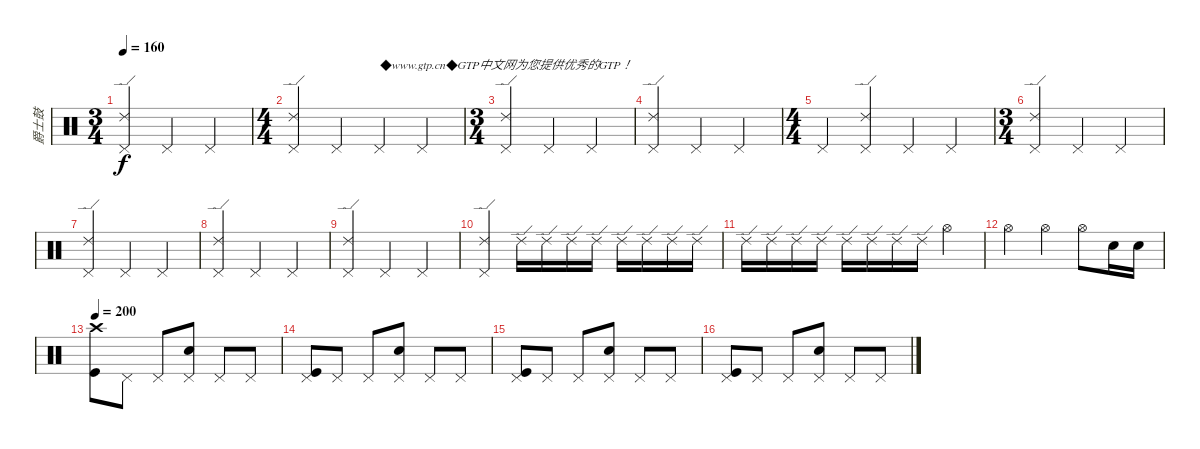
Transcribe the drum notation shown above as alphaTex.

\track ("爵士鼓" "爵士鼓") {instrument percussion}
\staff {score}
\articulation defaults
\ts (3 4)
\tempo 160
\clef neutral
\ks c
("Pedal Hi-Hat (hit)" "Ride (edge) 2").4{dy f} "Pedal Hi-Hat (hit)".4 "Pedal Hi-Hat (hit)".4 |
\ts (4 4)
("Pedal Hi-Hat (hit)" "Ride (edge) 2").4 "Pedal Hi-Hat (hit)".4 "Pedal Hi-Hat (hit)".4{txt "◆www.gtp.cn◆GTP中文网为您提供优秀的GTP！"} "Pedal Hi-Hat (hit)".4 |
\ts (3 4)
("Pedal Hi-Hat (hit)" "Ride (edge) 2").4 "Pedal Hi-Hat (hit)".4 "Pedal Hi-Hat (hit)".4 |
("Pedal Hi-Hat (hit)" "Ride (edge) 2").4 "Pedal Hi-Hat (hit)".4 "Pedal Hi-Hat (hit)".4 |
\ts (4 4)
"Pedal Hi-Hat (hit)".4 ("Pedal Hi-Hat (hit)" "Ride (edge) 2").4 "Pedal Hi-Hat (hit)".4 "Pedal Hi-Hat (hit)".4 |
\ts (3 4)
("Pedal Hi-Hat (hit)" "Ride (edge) 2").4 "Pedal Hi-Hat (hit)".4 "Pedal Hi-Hat (hit)".4 |
("Pedal Hi-Hat (hit)" "Ride (edge) 2").4 "Pedal Hi-Hat (hit)".4 "Pedal Hi-Hat (hit)".4 |
("Pedal Hi-Hat (hit)" "Ride (edge) 2").4 "Pedal Hi-Hat (hit)".4 "Pedal Hi-Hat (hit)".4 |
("Pedal Hi-Hat (hit)" "Ride (edge) 2").4 "Pedal Hi-Hat (hit)".4 "Pedal Hi-Hat (hit)".4 |
("Pedal Hi-Hat (hit)" "Ride (edge) 2").4 "Ride (edge) 2".16 "Ride (edge) 2".16 "Ride (edge) 2".16 "Ride (edge) 2".16 "Ride (edge) 2".16 "Ride (edge) 2".16 "Ride (edge) 2".16 "Ride (edge) 2".16 |
"Ride (edge) 2".16 "Ride (edge) 2".16 "Ride (edge) 2".16 "Ride (edge) 2".16 "Ride (edge) 2".16 "Ride (edge) 2".16 "Ride (edge) 2".16 "Ride (edge) 2".16 "Hi-Hat (open)".4 |
"Hi-Hat (open)".4 "Hi-Hat (open)".4 "Hi-Hat (open)".8 "Electric Snare (hit)".16 "Electric Snare (hit)".16 |
\tempo 200
("Crash high (hit)" "Kick (hit)").8 "Pedal Hi-Hat (hit)".8 "Pedal Hi-Hat (hit)".8 ("Pedal Hi-Hat (hit)" "Electric Snare (hit)").8 "Pedal Hi-Hat (hit)".8 "Pedal Hi-Hat (hit)".8 |
("Pedal Hi-Hat (hit)" "Kick (hit)").8 "Pedal Hi-Hat (hit)".8 "Pedal Hi-Hat (hit)".8 ("Pedal Hi-Hat (hit)" "Electric Snare (hit)").8 "Pedal Hi-Hat (hit)".8 "Pedal Hi-Hat (hit)".8 |
("Pedal Hi-Hat (hit)" "Kick (hit)").8 "Pedal Hi-Hat (hit)".8 "Pedal Hi-Hat (hit)".8 ("Pedal Hi-Hat (hit)" "Electric Snare (hit)").8 "Pedal Hi-Hat (hit)".8 "Pedal Hi-Hat (hit)".8 |
("Pedal Hi-Hat (hit)" "Kick (hit)").8 "Pedal Hi-Hat (hit)".8 "Pedal Hi-Hat (hit)".8 ("Pedal Hi-Hat (hit)" "Electric Snare (hit)").8 "Pedal Hi-Hat (hit)".8 "Pedal Hi-Hat (hit)".8
